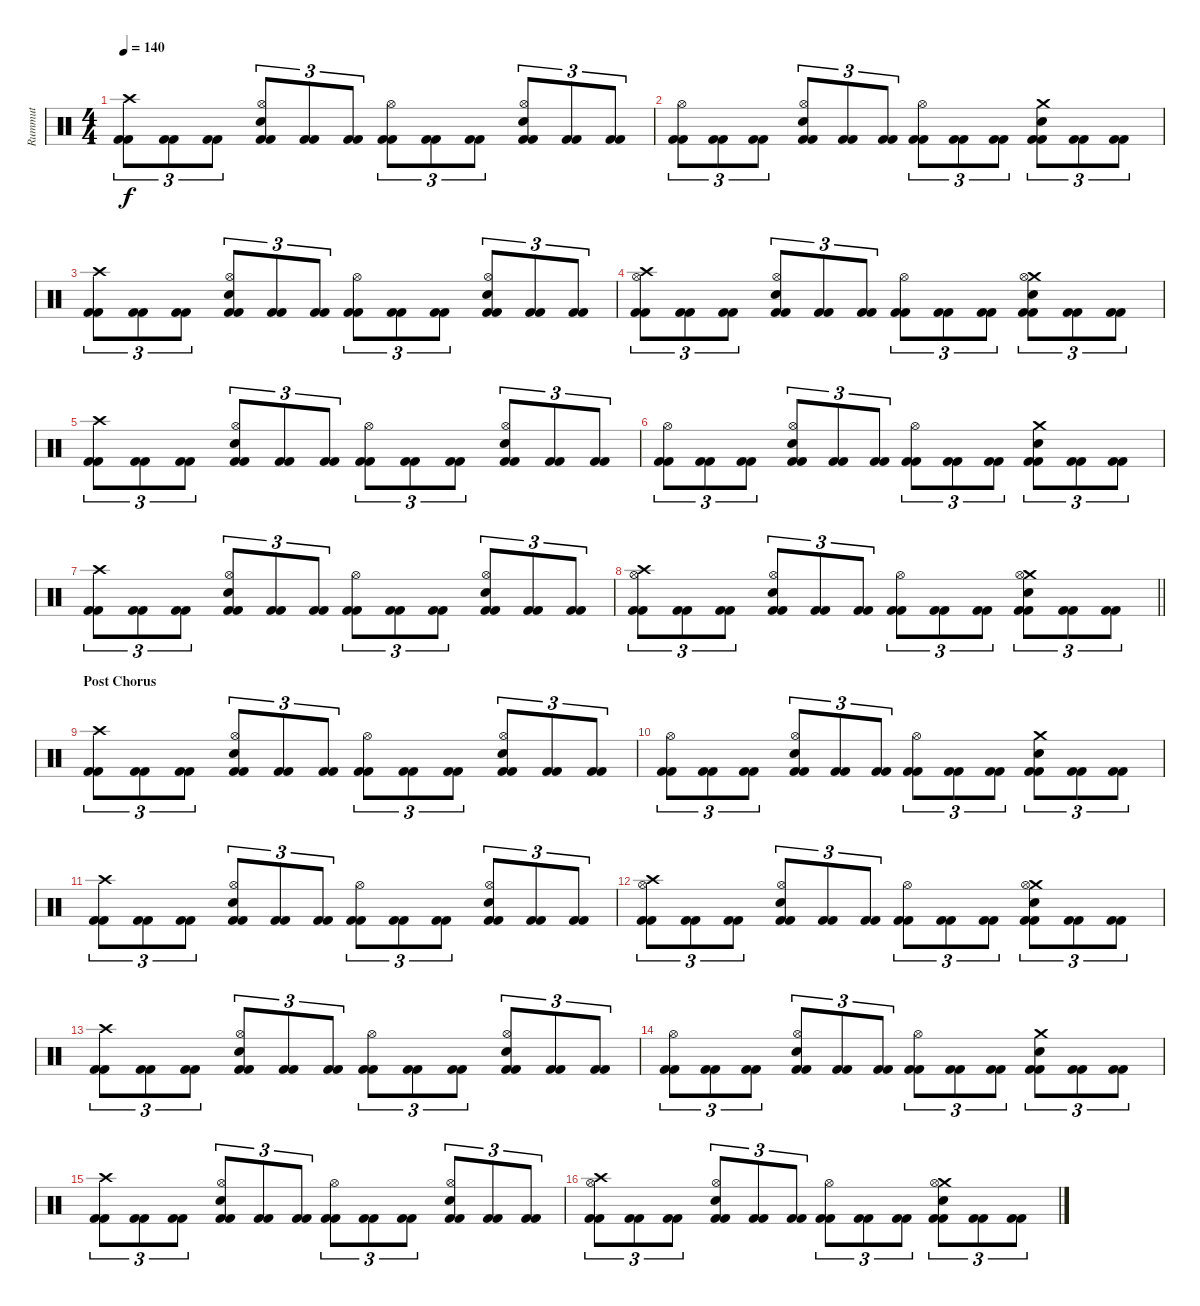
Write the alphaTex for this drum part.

\track ("Rummut" "Rummut") {instrument percussion}
\staff {score}
\articulation defaults
\ts (4 4)
\tempo 140
\clef neutral
\ks c
("Crash high (hit)" "Kick (hit) 2" "Kick (hit) 2").8{tu (3 2) dy f} ("Kick (hit) 2" "Kick (hit) 2").8{tu (3 2)} ("Kick (hit) 2" "Kick (hit) 2").8{tu (3 2)} ("Hi-Hat (open)" "Electric Snare (hit)" "Kick (hit) 2" "Kick (hit) 2").8{tu (3 2)} ("Kick (hit) 2" "Kick (hit) 2").8{tu (3 2)} ("Kick (hit) 2" "Kick (hit) 2").8{tu (3 2)} ("Hi-Hat (open)" "Kick (hit) 2" "Kick (hit) 2").8{tu (3 2)} ("Kick (hit) 2" "Kick (hit) 2").8{tu (3 2)} ("Kick (hit) 2" "Kick (hit) 2").8{tu (3 2)} ("Hi-Hat (open)" "Electric Snare (hit)" "Kick (hit) 2" "Kick (hit) 2").8{tu (3 2)} ("Kick (hit) 2" "Kick (hit) 2").8{tu (3 2)} ("Kick (hit) 2" "Kick (hit) 2").8{tu (3 2)} |
("Hi-Hat (open)" "Kick (hit) 2" "Kick (hit) 2").8{tu (3 2)} ("Kick (hit) 2" "Kick (hit) 2").8{tu (3 2)} ("Kick (hit) 2" "Kick (hit) 2").8{tu (3 2)} ("Hi-Hat (open)" "Electric Snare (hit)" "Kick (hit) 2" "Kick (hit) 2").8{tu (3 2)} ("Kick (hit) 2" "Kick (hit) 2").8{tu (3 2)} ("Kick (hit) 2" "Kick (hit) 2").8{tu (3 2)} ("Hi-Hat (open)" "Kick (hit) 2" "Kick (hit) 2").8{tu (3 2)} ("Kick (hit) 2" "Kick (hit) 2").8{tu (3 2)} ("Kick (hit) 2" "Kick (hit) 2").8{tu (3 2)} ("Crash medium (hit)" "Electric Snare (hit)" "Kick (hit) 2" "Kick (hit) 2").8{tu (3 2)} ("Kick (hit) 2" "Kick (hit) 2").8{tu (3 2)} ("Kick (hit) 2" "Kick (hit) 2").8{tu (3 2)} |
("Crash high (hit)" "Kick (hit) 2" "Kick (hit) 2").8{tu (3 2)} ("Kick (hit) 2" "Kick (hit) 2").8{tu (3 2)} ("Kick (hit) 2" "Kick (hit) 2").8{tu (3 2)} ("Hi-Hat (open)" "Electric Snare (hit)" "Kick (hit) 2" "Kick (hit) 2").8{tu (3 2)} ("Kick (hit) 2" "Kick (hit) 2").8{tu (3 2)} ("Kick (hit) 2" "Kick (hit) 2").8{tu (3 2)} ("Hi-Hat (open)" "Kick (hit) 2" "Kick (hit) 2").8{tu (3 2)} ("Kick (hit) 2" "Kick (hit) 2").8{tu (3 2)} ("Kick (hit) 2" "Kick (hit) 2").8{tu (3 2)} ("Hi-Hat (open)" "Electric Snare (hit)" "Kick (hit) 2" "Kick (hit) 2").8{tu (3 2)} ("Kick (hit) 2" "Kick (hit) 2").8{tu (3 2)} ("Kick (hit) 2" "Kick (hit) 2").8{tu (3 2)} |
("Crash high (hit)" "Hi-Hat (open)" "Kick (hit) 2" "Kick (hit) 2").8{tu (3 2)} ("Kick (hit) 2" "Kick (hit) 2").8{tu (3 2)} ("Kick (hit) 2" "Kick (hit) 2").8{tu (3 2)} ("Hi-Hat (open)" "Electric Snare (hit)" "Kick (hit) 2" "Kick (hit) 2").8{tu (3 2)} ("Kick (hit) 2" "Kick (hit) 2").8{tu (3 2)} ("Kick (hit) 2" "Kick (hit) 2").8{tu (3 2)} ("Hi-Hat (open)" "Kick (hit) 2" "Kick (hit) 2").8{tu (3 2)} ("Kick (hit) 2" "Kick (hit) 2").8{tu (3 2)} ("Kick (hit) 2" "Kick (hit) 2").8{tu (3 2)} ("Crash medium (hit)" "Hi-Hat (open)" "Electric Snare (hit)" "Kick (hit) 2" "Kick (hit) 2").8{tu (3 2)} ("Kick (hit) 2" "Kick (hit) 2").8{tu (3 2)} ("Kick (hit) 2" "Kick (hit) 2").8{tu (3 2)} |
("Crash high (hit)" "Kick (hit) 2" "Kick (hit) 2").8{tu (3 2)} ("Kick (hit) 2" "Kick (hit) 2").8{tu (3 2)} ("Kick (hit) 2" "Kick (hit) 2").8{tu (3 2)} ("Hi-Hat (open)" "Electric Snare (hit)" "Kick (hit) 2" "Kick (hit) 2").8{tu (3 2)} ("Kick (hit) 2" "Kick (hit) 2").8{tu (3 2)} ("Kick (hit) 2" "Kick (hit) 2").8{tu (3 2)} ("Hi-Hat (open)" "Kick (hit) 2" "Kick (hit) 2").8{tu (3 2)} ("Kick (hit) 2" "Kick (hit) 2").8{tu (3 2)} ("Kick (hit) 2" "Kick (hit) 2").8{tu (3 2)} ("Hi-Hat (open)" "Electric Snare (hit)" "Kick (hit) 2" "Kick (hit) 2").8{tu (3 2)} ("Kick (hit) 2" "Kick (hit) 2").8{tu (3 2)} ("Kick (hit) 2" "Kick (hit) 2").8{tu (3 2)} |
("Hi-Hat (open)" "Kick (hit) 2" "Kick (hit) 2").8{tu (3 2)} ("Kick (hit) 2" "Kick (hit) 2").8{tu (3 2)} ("Kick (hit) 2" "Kick (hit) 2").8{tu (3 2)} ("Hi-Hat (open)" "Electric Snare (hit)" "Kick (hit) 2" "Kick (hit) 2").8{tu (3 2)} ("Kick (hit) 2" "Kick (hit) 2").8{tu (3 2)} ("Kick (hit) 2" "Kick (hit) 2").8{tu (3 2)} ("Hi-Hat (open)" "Kick (hit) 2" "Kick (hit) 2").8{tu (3 2)} ("Kick (hit) 2" "Kick (hit) 2").8{tu (3 2)} ("Kick (hit) 2" "Kick (hit) 2").8{tu (3 2)} ("Crash medium (hit)" "Electric Snare (hit)" "Kick (hit) 2" "Kick (hit) 2").8{tu (3 2)} ("Kick (hit) 2" "Kick (hit) 2").8{tu (3 2)} ("Kick (hit) 2" "Kick (hit) 2").8{tu (3 2)} |
("Crash high (hit)" "Kick (hit) 2" "Kick (hit) 2").8{tu (3 2)} ("Kick (hit) 2" "Kick (hit) 2").8{tu (3 2)} ("Kick (hit) 2" "Kick (hit) 2").8{tu (3 2)} ("Hi-Hat (open)" "Electric Snare (hit)" "Kick (hit) 2" "Kick (hit) 2").8{tu (3 2)} ("Kick (hit) 2" "Kick (hit) 2").8{tu (3 2)} ("Kick (hit) 2" "Kick (hit) 2").8{tu (3 2)} ("Hi-Hat (open)" "Kick (hit) 2" "Kick (hit) 2").8{tu (3 2)} ("Kick (hit) 2" "Kick (hit) 2").8{tu (3 2)} ("Kick (hit) 2" "Kick (hit) 2").8{tu (3 2)} ("Hi-Hat (open)" "Electric Snare (hit)" "Kick (hit) 2" "Kick (hit) 2").8{tu (3 2)} ("Kick (hit) 2" "Kick (hit) 2").8{tu (3 2)} ("Kick (hit) 2" "Kick (hit) 2").8{tu (3 2)} |
\barLineRight lightlight
("Crash high (hit)" "Hi-Hat (open)" "Kick (hit) 2" "Kick (hit) 2").8{tu (3 2)} ("Kick (hit) 2" "Kick (hit) 2").8{tu (3 2)} ("Kick (hit) 2" "Kick (hit) 2").8{tu (3 2)} ("Hi-Hat (open)" "Electric Snare (hit)" "Kick (hit) 2" "Kick (hit) 2").8{tu (3 2)} ("Kick (hit) 2" "Kick (hit) 2").8{tu (3 2)} ("Kick (hit) 2" "Kick (hit) 2").8{tu (3 2)} ("Hi-Hat (open)" "Kick (hit) 2" "Kick (hit) 2").8{tu (3 2)} ("Kick (hit) 2" "Kick (hit) 2").8{tu (3 2)} ("Kick (hit) 2" "Kick (hit) 2").8{tu (3 2)} ("Crash medium (hit)" "Hi-Hat (open)" "Electric Snare (hit)" "Kick (hit) 2" "Kick (hit) 2").8{tu (3 2)} ("Kick (hit) 2" "Kick (hit) 2").8{tu (3 2)} ("Kick (hit) 2" "Kick (hit) 2").8{tu (3 2)} |
\section ("" "Post Chorus")
("Crash high (hit)" "Kick (hit) 2" "Kick (hit) 2").8{tu (3 2)} ("Kick (hit) 2" "Kick (hit) 2").8{tu (3 2)} ("Kick (hit) 2" "Kick (hit) 2").8{tu (3 2)} ("Hi-Hat (open)" "Electric Snare (hit)" "Kick (hit) 2" "Kick (hit) 2").8{tu (3 2)} ("Kick (hit) 2" "Kick (hit) 2").8{tu (3 2)} ("Kick (hit) 2" "Kick (hit) 2").8{tu (3 2)} ("Hi-Hat (open)" "Kick (hit) 2" "Kick (hit) 2").8{tu (3 2)} ("Kick (hit) 2" "Kick (hit) 2").8{tu (3 2)} ("Kick (hit) 2" "Kick (hit) 2").8{tu (3 2)} ("Hi-Hat (open)" "Electric Snare (hit)" "Kick (hit) 2" "Kick (hit) 2").8{tu (3 2)} ("Kick (hit) 2" "Kick (hit) 2").8{tu (3 2)} ("Kick (hit) 2" "Kick (hit) 2").8{tu (3 2)} |
("Hi-Hat (open)" "Kick (hit) 2" "Kick (hit) 2").8{tu (3 2)} ("Kick (hit) 2" "Kick (hit) 2").8{tu (3 2)} ("Kick (hit) 2" "Kick (hit) 2").8{tu (3 2)} ("Hi-Hat (open)" "Electric Snare (hit)" "Kick (hit) 2" "Kick (hit) 2").8{tu (3 2)} ("Kick (hit) 2" "Kick (hit) 2").8{tu (3 2)} ("Kick (hit) 2" "Kick (hit) 2").8{tu (3 2)} ("Hi-Hat (open)" "Kick (hit) 2" "Kick (hit) 2").8{tu (3 2)} ("Kick (hit) 2" "Kick (hit) 2").8{tu (3 2)} ("Kick (hit) 2" "Kick (hit) 2").8{tu (3 2)} ("Crash medium (hit)" "Electric Snare (hit)" "Kick (hit) 2" "Kick (hit) 2").8{tu (3 2)} ("Kick (hit) 2" "Kick (hit) 2").8{tu (3 2)} ("Kick (hit) 2" "Kick (hit) 2").8{tu (3 2)} |
("Crash high (hit)" "Kick (hit) 2" "Kick (hit) 2").8{tu (3 2)} ("Kick (hit) 2" "Kick (hit) 2").8{tu (3 2)} ("Kick (hit) 2" "Kick (hit) 2").8{tu (3 2)} ("Hi-Hat (open)" "Electric Snare (hit)" "Kick (hit) 2" "Kick (hit) 2").8{tu (3 2)} ("Kick (hit) 2" "Kick (hit) 2").8{tu (3 2)} ("Kick (hit) 2" "Kick (hit) 2").8{tu (3 2)} ("Hi-Hat (open)" "Kick (hit) 2" "Kick (hit) 2").8{tu (3 2)} ("Kick (hit) 2" "Kick (hit) 2").8{tu (3 2)} ("Kick (hit) 2" "Kick (hit) 2").8{tu (3 2)} ("Hi-Hat (open)" "Electric Snare (hit)" "Kick (hit) 2" "Kick (hit) 2").8{tu (3 2)} ("Kick (hit) 2" "Kick (hit) 2").8{tu (3 2)} ("Kick (hit) 2" "Kick (hit) 2").8{tu (3 2)} |
("Crash high (hit)" "Hi-Hat (open)" "Kick (hit) 2" "Kick (hit) 2").8{tu (3 2)} ("Kick (hit) 2" "Kick (hit) 2").8{tu (3 2)} ("Kick (hit) 2" "Kick (hit) 2").8{tu (3 2)} ("Hi-Hat (open)" "Electric Snare (hit)" "Kick (hit) 2" "Kick (hit) 2").8{tu (3 2)} ("Kick (hit) 2" "Kick (hit) 2").8{tu (3 2)} ("Kick (hit) 2" "Kick (hit) 2").8{tu (3 2)} ("Hi-Hat (open)" "Kick (hit) 2" "Kick (hit) 2").8{tu (3 2)} ("Kick (hit) 2" "Kick (hit) 2").8{tu (3 2)} ("Kick (hit) 2" "Kick (hit) 2").8{tu (3 2)} ("Crash medium (hit)" "Hi-Hat (open)" "Electric Snare (hit)" "Kick (hit) 2" "Kick (hit) 2").8{tu (3 2)} ("Kick (hit) 2" "Kick (hit) 2").8{tu (3 2)} ("Kick (hit) 2" "Kick (hit) 2").8{tu (3 2)} |
("Crash high (hit)" "Kick (hit) 2" "Kick (hit) 2").8{tu (3 2)} ("Kick (hit) 2" "Kick (hit) 2").8{tu (3 2)} ("Kick (hit) 2" "Kick (hit) 2").8{tu (3 2)} ("Hi-Hat (open)" "Electric Snare (hit)" "Kick (hit) 2" "Kick (hit) 2").8{tu (3 2)} ("Kick (hit) 2" "Kick (hit) 2").8{tu (3 2)} ("Kick (hit) 2" "Kick (hit) 2").8{tu (3 2)} ("Hi-Hat (open)" "Kick (hit) 2" "Kick (hit) 2").8{tu (3 2)} ("Kick (hit) 2" "Kick (hit) 2").8{tu (3 2)} ("Kick (hit) 2" "Kick (hit) 2").8{tu (3 2)} ("Hi-Hat (open)" "Electric Snare (hit)" "Kick (hit) 2" "Kick (hit) 2").8{tu (3 2)} ("Kick (hit) 2" "Kick (hit) 2").8{tu (3 2)} ("Kick (hit) 2" "Kick (hit) 2").8{tu (3 2)} |
("Hi-Hat (open)" "Kick (hit) 2" "Kick (hit) 2").8{tu (3 2)} ("Kick (hit) 2" "Kick (hit) 2").8{tu (3 2)} ("Kick (hit) 2" "Kick (hit) 2").8{tu (3 2)} ("Hi-Hat (open)" "Electric Snare (hit)" "Kick (hit) 2" "Kick (hit) 2").8{tu (3 2)} ("Kick (hit) 2" "Kick (hit) 2").8{tu (3 2)} ("Kick (hit) 2" "Kick (hit) 2").8{tu (3 2)} ("Hi-Hat (open)" "Kick (hit) 2" "Kick (hit) 2").8{tu (3 2)} ("Kick (hit) 2" "Kick (hit) 2").8{tu (3 2)} ("Kick (hit) 2" "Kick (hit) 2").8{tu (3 2)} ("Crash medium (hit)" "Electric Snare (hit)" "Kick (hit) 2" "Kick (hit) 2").8{tu (3 2)} ("Kick (hit) 2" "Kick (hit) 2").8{tu (3 2)} ("Kick (hit) 2" "Kick (hit) 2").8{tu (3 2)} |
("Crash high (hit)" "Kick (hit) 2" "Kick (hit) 2").8{tu (3 2)} ("Kick (hit) 2" "Kick (hit) 2").8{tu (3 2)} ("Kick (hit) 2" "Kick (hit) 2").8{tu (3 2)} ("Hi-Hat (open)" "Electric Snare (hit)" "Kick (hit) 2" "Kick (hit) 2").8{tu (3 2)} ("Kick (hit) 2" "Kick (hit) 2").8{tu (3 2)} ("Kick (hit) 2" "Kick (hit) 2").8{tu (3 2)} ("Hi-Hat (open)" "Kick (hit) 2" "Kick (hit) 2").8{tu (3 2)} ("Kick (hit) 2" "Kick (hit) 2").8{tu (3 2)} ("Kick (hit) 2" "Kick (hit) 2").8{tu (3 2)} ("Hi-Hat (open)" "Electric Snare (hit)" "Kick (hit) 2" "Kick (hit) 2").8{tu (3 2)} ("Kick (hit) 2" "Kick (hit) 2").8{tu (3 2)} ("Kick (hit) 2" "Kick (hit) 2").8{tu (3 2)} |
("Crash high (hit)" "Hi-Hat (open)" "Kick (hit) 2" "Kick (hit) 2").8{tu (3 2)} ("Kick (hit) 2" "Kick (hit) 2").8{tu (3 2)} ("Kick (hit) 2" "Kick (hit) 2").8{tu (3 2)} ("Hi-Hat (open)" "Electric Snare (hit)" "Kick (hit) 2" "Kick (hit) 2").8{tu (3 2)} ("Kick (hit) 2" "Kick (hit) 2").8{tu (3 2)} ("Kick (hit) 2" "Kick (hit) 2").8{tu (3 2)} ("Hi-Hat (open)" "Kick (hit) 2" "Kick (hit) 2").8{tu (3 2)} ("Kick (hit) 2" "Kick (hit) 2").8{tu (3 2)} ("Kick (hit) 2" "Kick (hit) 2").8{tu (3 2)} ("Crash medium (hit)" "Hi-Hat (open)" "Electric Snare (hit)" "Kick (hit) 2" "Kick (hit) 2").8{tu (3 2)} ("Kick (hit) 2" "Kick (hit) 2").8{tu (3 2)} ("Kick (hit) 2" "Kick (hit) 2").8{tu (3 2)}
